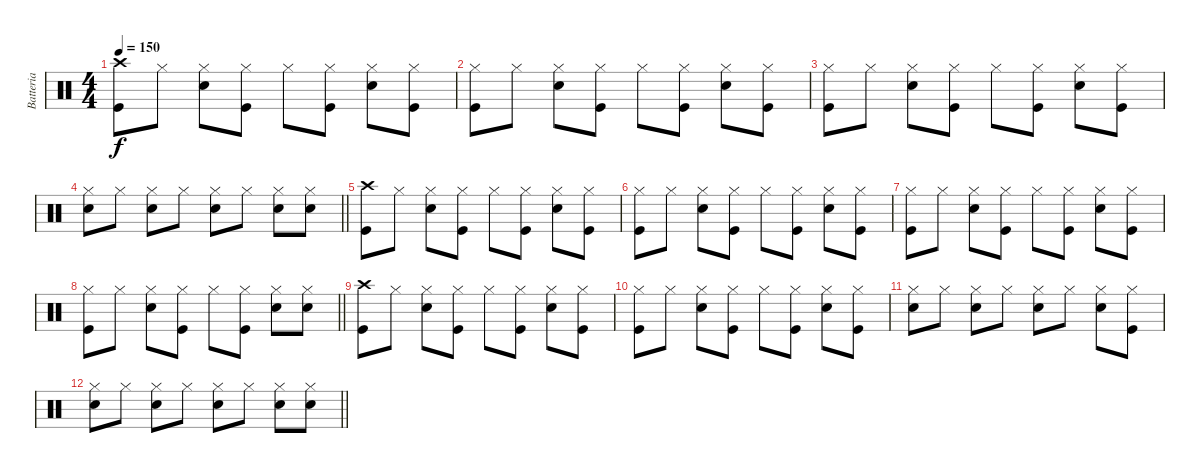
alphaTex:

\track ("Batteria" "Batteria") {instrument percussion}
\staff {score}
\articulation defaults
\ts (4 4)
\tempo 150
\clef neutral
\ks c
("Kick (hit)" "Crash high (hit)").8{dy f} "Hi-Hat (closed)".8 ("Snare (hit) 2" "Hi-Hat (closed)").8 ("Kick (hit)" "Hi-Hat (closed)").8 "Hi-Hat (closed)".8 ("Kick (hit)" "Hi-Hat (closed)").8 ("Snare (hit) 2" "Hi-Hat (closed)").8 ("Kick (hit)" "Hi-Hat (closed)").8 |
("Kick (hit)" "Hi-Hat (closed)").8 "Hi-Hat (closed)".8 ("Snare (hit) 2" "Hi-Hat (closed)").8 ("Kick (hit)" "Hi-Hat (closed)").8 "Hi-Hat (closed)".8 ("Kick (hit)" "Hi-Hat (closed)").8 ("Snare (hit) 2" "Hi-Hat (closed)").8 ("Kick (hit)" "Hi-Hat (closed)").8 |
("Kick (hit)" "Hi-Hat (closed)").8 "Hi-Hat (closed)".8 ("Snare (hit) 2" "Hi-Hat (closed)").8 ("Kick (hit)" "Hi-Hat (closed)").8 "Hi-Hat (closed)".8 ("Kick (hit)" "Hi-Hat (closed)").8 ("Snare (hit) 2" "Hi-Hat (closed)").8 ("Kick (hit)" "Hi-Hat (closed)").8 |
\barLineRight lightlight
("Hi-Hat (closed)" "Snare (hit) 2").8 "Hi-Hat (closed)".8 ("Hi-Hat (closed)" "Snare (hit) 2").8 "Hi-Hat (closed)".8 ("Hi-Hat (closed)" "Snare (hit) 2").8 "Hi-Hat (closed)".8 ("Hi-Hat (closed)" "Snare (hit) 2").8 ("Hi-Hat (closed)" "Snare (hit) 2").8 |
("Kick (hit)" "Crash high (hit)").8 "Hi-Hat (closed)".8 ("Snare (hit) 2" "Hi-Hat (closed)").8 ("Kick (hit)" "Hi-Hat (closed)").8 "Hi-Hat (closed)".8 ("Kick (hit)" "Hi-Hat (closed)").8 ("Snare (hit) 2" "Hi-Hat (closed)").8 ("Kick (hit)" "Hi-Hat (closed)").8 |
("Kick (hit)" "Hi-Hat (closed)").8 "Hi-Hat (closed)".8 ("Snare (hit) 2" "Hi-Hat (closed)").8 ("Kick (hit)" "Hi-Hat (closed)").8 "Hi-Hat (closed)".8 ("Kick (hit)" "Hi-Hat (closed)").8 ("Snare (hit) 2" "Hi-Hat (closed)").8 ("Kick (hit)" "Hi-Hat (closed)").8 |
("Kick (hit)" "Hi-Hat (closed)").8 "Hi-Hat (closed)".8 ("Snare (hit) 2" "Hi-Hat (closed)").8 ("Kick (hit)" "Hi-Hat (closed)").8 "Hi-Hat (closed)".8 ("Kick (hit)" "Hi-Hat (closed)").8 ("Snare (hit) 2" "Hi-Hat (closed)").8 ("Kick (hit)" "Hi-Hat (closed)").8 |
\barLineRight lightlight
("Kick (hit)" "Hi-Hat (closed)").8 "Hi-Hat (closed)".8 ("Snare (hit) 2" "Hi-Hat (closed)").8 ("Kick (hit)" "Hi-Hat (closed)").8 "Hi-Hat (closed)".8 ("Kick (hit)" "Hi-Hat (closed)").8 ("Snare (hit) 2" "Hi-Hat (closed)").8 ("Hi-Hat (closed)" "Snare (hit) 2").8 |
("Kick (hit)" "Crash high (hit)").8 "Hi-Hat (closed)".8 ("Snare (hit) 2" "Hi-Hat (closed)").8 ("Kick (hit)" "Hi-Hat (closed)").8 "Hi-Hat (closed)".8 ("Kick (hit)" "Hi-Hat (closed)").8 ("Snare (hit) 2" "Hi-Hat (closed)").8 ("Kick (hit)" "Hi-Hat (closed)").8 |
("Kick (hit)" "Hi-Hat (closed)").8 "Hi-Hat (closed)".8 ("Snare (hit) 2" "Hi-Hat (closed)").8 ("Kick (hit)" "Hi-Hat (closed)").8 "Hi-Hat (closed)".8 ("Kick (hit)" "Hi-Hat (closed)").8 ("Snare (hit) 2" "Hi-Hat (closed)").8 ("Kick (hit)" "Hi-Hat (closed)").8 |
("Hi-Hat (closed)" "Snare (hit) 2").8 "Hi-Hat (closed)".8 ("Hi-Hat (closed)" "Snare (hit) 2").8 "Hi-Hat (closed)".8 ("Hi-Hat (closed)" "Snare (hit) 2").8 "Hi-Hat (closed)".8 ("Hi-Hat (closed)" "Snare (hit) 2").8 ("Hi-Hat (closed)" "Kick (hit)").8 |
\barLineRight lightlight
("Hi-Hat (closed)" "Snare (hit) 2").8 "Hi-Hat (closed)".8 ("Hi-Hat (closed)" "Snare (hit) 2").8 "Hi-Hat (closed)".8 ("Hi-Hat (closed)" "Snare (hit) 2").8 "Hi-Hat (closed)".8 ("Hi-Hat (closed)" "Snare (hit) 2").8 ("Hi-Hat (closed)" "Snare (hit) 2").8
